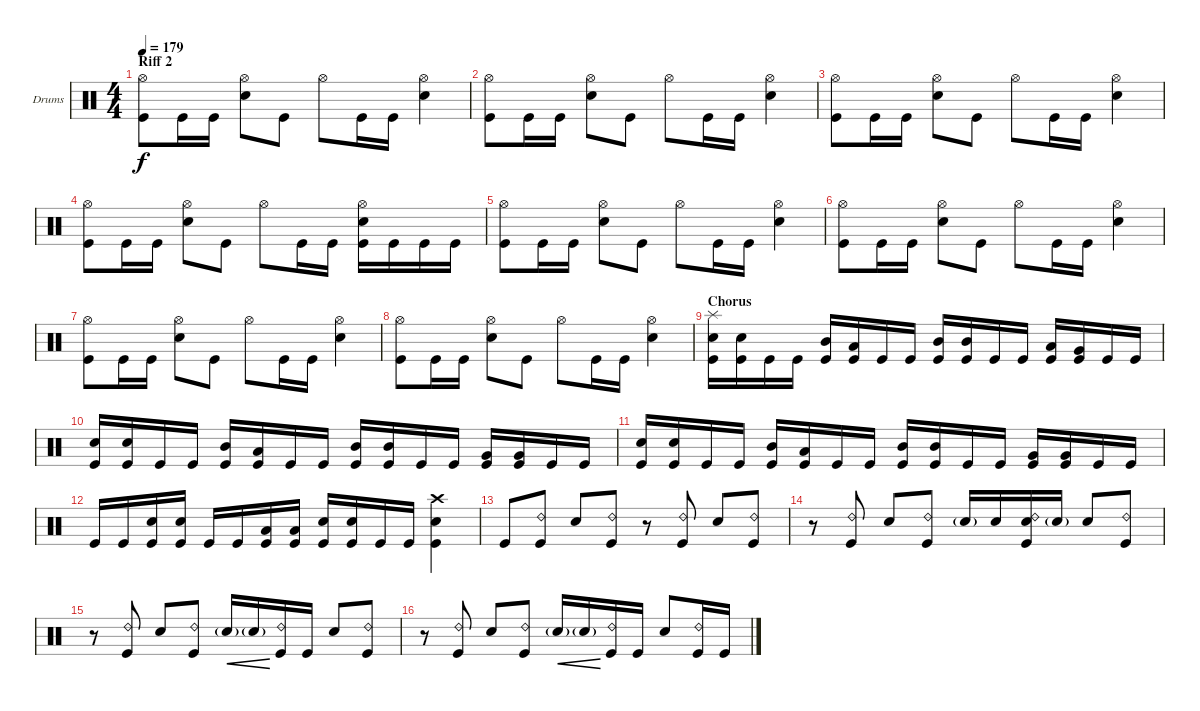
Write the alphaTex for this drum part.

\bracketExtendMode groupsimilarinstruments
\firstSystemTrackNameOrientation horizontal
\otherSystemsTrackNameOrientation horizontal
\track ("Drumkit" "Drums") {multiBarRest instrument percussion}
\staff {score}
\articulation defaults
\ts (4 4)
\section ("" "Riff 2")
\tempo 179
\clef neutral
\ks c
("Hi-Hat (open)" "Kick (hit)").8{dy f} "Kick (hit)".16 "Kick (hit)".16 ("Hi-Hat (open)" "Snare (hit) 2").8 "Kick (hit)".8 "Hi-Hat (open)".8 "Kick (hit)".16 "Kick (hit)".16 ("Hi-Hat (open)" "Snare (hit) 2").4 |
("Hi-Hat (open)" "Kick (hit)").8 "Kick (hit)".16 "Kick (hit)".16 ("Hi-Hat (open)" "Snare (hit) 2").8 "Kick (hit)".8 "Hi-Hat (open)".8 "Kick (hit)".16 "Kick (hit)".16 ("Hi-Hat (open)" "Snare (hit) 2").4 |
("Hi-Hat (open)" "Kick (hit)").8 "Kick (hit)".16 "Kick (hit)".16 ("Hi-Hat (open)" "Snare (hit) 2").8 "Kick (hit)".8 "Hi-Hat (open)".8 "Kick (hit)".16 "Kick (hit)".16 ("Hi-Hat (open)" "Snare (hit) 2").4 |
("Hi-Hat (open)" "Kick (hit)").8 "Kick (hit)".16 "Kick (hit)".16 ("Hi-Hat (open)" "Snare (hit) 2").8 "Kick (hit)".8 "Hi-Hat (open)".8 "Kick (hit)".16 "Kick (hit)".16 ("Hi-Hat (open)" "Snare (hit) 2" "Kick (hit)").16 "Kick (hit)".16 "Kick (hit)".16 "Kick (hit)".16 |
("Hi-Hat (open)" "Kick (hit)").8 "Kick (hit)".16 "Kick (hit)".16 ("Hi-Hat (open)" "Snare (hit) 2").8 "Kick (hit)".8 "Hi-Hat (open)".8 "Kick (hit)".16 "Kick (hit)".16 ("Hi-Hat (open)" "Snare (hit) 2").4 |
("Hi-Hat (open)" "Kick (hit)").8 "Kick (hit)".16 "Kick (hit)".16 ("Hi-Hat (open)" "Snare (hit) 2").8 "Kick (hit)".8 "Hi-Hat (open)".8 "Kick (hit)".16 "Kick (hit)".16 ("Hi-Hat (open)" "Snare (hit) 2").4 |
("Hi-Hat (open)" "Kick (hit)").8 "Kick (hit)".16 "Kick (hit)".16 ("Hi-Hat (open)" "Snare (hit) 2").8 "Kick (hit)".8 "Hi-Hat (open)".8 "Kick (hit)".16 "Kick (hit)".16 ("Hi-Hat (open)" "Snare (hit) 2").4 |
("Hi-Hat (open)" "Kick (hit)").8 "Kick (hit)".16 "Kick (hit)".16 ("Hi-Hat (open)" "Snare (hit) 2").8 "Kick (hit)".8 "Hi-Hat (open)".8 "Kick (hit)".16 "Kick (hit)".16 ("Hi-Hat (open)" "Snare (hit) 2").4 |
\section ("" "Chorus")
("Splash (hit)" "Snare (hit) 2" "Kick (hit)").16 ("Snare (hit) 2" "Kick (hit)").16 "Kick (hit)".16 "Kick (hit)".16 ("Mid Tom (hit)" "Kick (hit)").16 ("Low Tom (hit)" "Kick (hit)").16 "Kick (hit)".16 "Kick (hit)".16 ("Mid Tom (hit)" "Kick (hit)").16 ("Mid Tom (hit)" "Kick (hit)").16 "Kick (hit)".16 "Kick (hit)".16 ("Low Tom (hit)" "Kick (hit)").16 ("Very Low Tom (hit)" "Kick (hit)").16 "Kick (hit)".16 "Kick (hit)".16 |
("Snare (hit) 2" "Kick (hit)").16 ("Snare (hit) 2" "Kick (hit)").16 "Kick (hit)".16 "Kick (hit)".16 ("Mid Tom (hit)" "Kick (hit)").16 ("Low Tom (hit)" "Kick (hit)").16 "Kick (hit)".16 "Kick (hit)".16 ("Mid Tom (hit)" "Kick (hit)").16 ("Mid Tom (hit)" "Kick (hit)").16 "Kick (hit)".16 "Kick (hit)".16 ("Very Low Tom (hit)" "Kick (hit)").16 ("Very Low Tom (hit)" "Kick (hit)").16 "Kick (hit)".16 "Kick (hit)".16 |
("Snare (hit) 2" "Kick (hit)").16 ("Snare (hit) 2" "Kick (hit)").16 "Kick (hit)".16 "Kick (hit)".16 ("Mid Tom (hit)" "Kick (hit)").16 ("Low Tom (hit)" "Kick (hit)").16 "Kick (hit)".16 "Kick (hit)".16 ("Mid Tom (hit)" "Kick (hit)").16 ("Mid Tom (hit)" "Kick (hit)").16 "Kick (hit)".16 "Kick (hit)".16 ("Very Low Tom (hit)" "Kick (hit)").16 ("Very Low Tom (hit)" "Kick (hit)").16 "Kick (hit)".16 "Kick (hit)".16 |
"Kick (hit)".16 "Kick (hit)".16 ("Snare (hit) 2" "Kick (hit)").16 ("Snare (hit) 2" "Kick (hit)").16 "Kick (hit)".16 "Kick (hit)".16 ("Low Tom (hit)" "Kick (hit)").16 ("Low Tom (hit)" "Kick (hit)").16 ("Snare (hit) 2" "Kick (hit)").16 ("Snare (hit) 2" "Kick (hit)").16 "Kick (hit)".16 "Kick (hit)".16 ("Crash high (hit)" "Snare (hit) 2" "Kick (hit)").4 |
"Kick (hit)".8 ("Ride (bell) 2" "Kick (hit)").8 "Snare (hit) 2".8 ("Ride (bell) 2" "Kick (hit)").8 r.8 ("Ride (bell) 2" "Kick (hit)").8 "Snare (hit) 2".8 ("Ride (bell) 2" "Kick (hit)").8 |
r.8 ("Ride (bell) 2" "Kick (hit)").8 "Snare (hit) 2".8 ("Ride (bell) 2" "Kick (hit)").8 "Snare (hit) 2"{g}.16 "Snare (hit) 2".16 ("Ride (bell) 2" "Snare (hit) 2" "Kick (hit)").16 "Snare (hit) 2"{g}.16 "Snare (hit) 2".8 ("Ride (bell) 2" "Kick (hit)").8 |
r.8 ("Ride (bell) 2" "Kick (hit)").8 "Snare (hit) 2".8 ("Ride (bell) 2" "Kick (hit)").8 "Snare (hit) 2"{g}.16{cre} "Snare (hit) 2"{g}.16{cre} ("Ride (bell) 2" "Kick (hit)").16 "Kick (hit)".16 "Snare (hit) 2".8 ("Ride (bell) 2" "Kick (hit)").8 |
r.8 ("Ride (bell) 2" "Kick (hit)").8 "Snare (hit) 2".8 ("Ride (bell) 2" "Kick (hit)").8 "Snare (hit) 2"{g}.16{cre} "Snare (hit) 2"{g}.16{cre} ("Ride (bell) 2" "Kick (hit)").16 "Kick (hit)".16 "Snare (hit) 2".8 ("Ride (bell) 2" "Kick (hit)").16 "Kick (hit)".16
